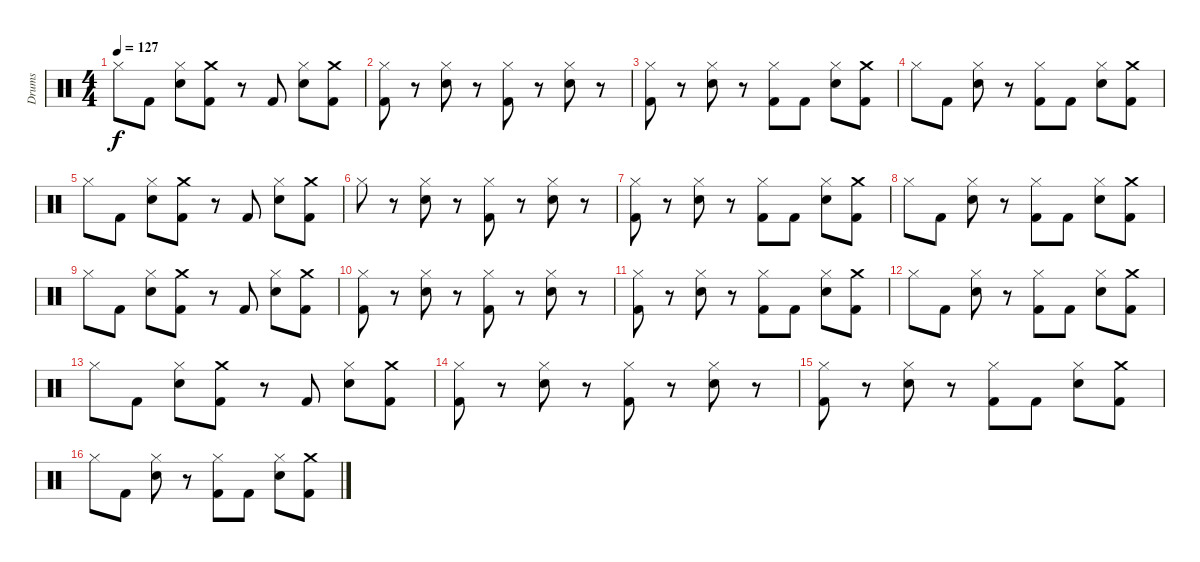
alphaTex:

\track ("Drums" "Drums") {instrument percussion}
\staff {score}
\articulation defaults
\ts (4 4)
\tempo 127
\clef neutral
\ks c "Hi-Hat (closed)".8{dy f} "Kick (hit) 2".8
("Hi-Hat (closed)" "Snare (hit) 2").8 ("Crash medium (hit)" "Kick (hit) 2").8 r.8 "Kick (hit) 2".8 ("Hi-Hat (closed)" "Snare (hit) 2").8 ("Crash medium (hit)" "Kick (hit) 2").8 |
("Hi-Hat (closed)" "Kick (hit) 2").8 r.8 ("Hi-Hat (closed)" "Snare (hit) 2").8 r.8 ("Hi-Hat (closed)" "Kick (hit) 2").8 r.8 ("Hi-Hat (closed)" "Snare (hit) 2").8 r.8 |
("Hi-Hat (closed)" "Kick (hit) 2").8 r.8 ("Hi-Hat (closed)" "Snare (hit) 2").8 r.8 ("Hi-Hat (closed)" "Kick (hit) 2").8 "Kick (hit) 2".8 ("Hi-Hat (closed)" "Snare (hit) 2").8 ("Crash medium (hit)" "Kick (hit) 2").8 |
"Hi-Hat (closed)".8 "Kick (hit) 2".8 ("Hi-Hat (closed)" "Snare (hit) 2").8 r.8 ("Hi-Hat (closed)" "Kick (hit) 2").8 "Kick (hit) 2".8 ("Hi-Hat (closed)" "Snare (hit) 2").8 ("Crash medium (hit)" "Kick (hit) 2").8 |
"Hi-Hat (closed)".8 "Kick (hit) 2".8 ("Hi-Hat (closed)" "Snare (hit) 2").8 ("Crash medium (hit)" "Kick (hit) 2").8 r.8 "Kick (hit) 2".8 ("Hi-Hat (closed)" "Snare (hit) 2").8 ("Crash medium (hit)" "Kick (hit) 2").8 |
"Hi-Hat (closed)".8 r.8 ("Hi-Hat (closed)" "Snare (hit) 2").8 r.8 ("Hi-Hat (closed)" "Kick (hit) 2").8 r.8 ("Hi-Hat (closed)" "Snare (hit) 2").8 r.8 |
("Hi-Hat (closed)" "Kick (hit) 2").8 r.8 ("Hi-Hat (closed)" "Snare (hit) 2").8 r.8 ("Hi-Hat (closed)" "Kick (hit) 2").8 "Kick (hit) 2".8 ("Hi-Hat (closed)" "Snare (hit) 2").8 ("Crash medium (hit)" "Kick (hit) 2").8 |
"Hi-Hat (closed)".8 "Kick (hit) 2".8 ("Hi-Hat (closed)" "Snare (hit) 2").8 r.8 ("Hi-Hat (closed)" "Kick (hit) 2").8 "Kick (hit) 2".8 ("Hi-Hat (closed)" "Snare (hit) 2").8 ("Crash medium (hit)" "Kick (hit) 2").8 |
"Hi-Hat (closed)".8 "Kick (hit) 2".8 ("Hi-Hat (closed)" "Snare (hit) 2").8 ("Crash medium (hit)" "Kick (hit) 2").8 r.8 "Kick (hit) 2".8 ("Hi-Hat (closed)" "Snare (hit) 2").8 ("Crash medium (hit)" "Kick (hit) 2").8 |
("Hi-Hat (closed)" "Kick (hit) 2").8 r.8 ("Hi-Hat (closed)" "Snare (hit) 2").8 r.8 ("Hi-Hat (closed)" "Kick (hit) 2").8 r.8 ("Hi-Hat (closed)" "Snare (hit) 2").8 r.8 |
("Hi-Hat (closed)" "Kick (hit) 2").8 r.8 ("Hi-Hat (closed)" "Snare (hit) 2").8 r.8 ("Hi-Hat (closed)" "Kick (hit) 2").8 "Kick (hit) 2".8 ("Hi-Hat (closed)" "Snare (hit) 2").8 ("Crash medium (hit)" "Kick (hit) 2").8 |
"Hi-Hat (closed)".8 "Kick (hit) 2".8 ("Hi-Hat (closed)" "Snare (hit) 2").8 r.8 ("Hi-Hat (closed)" "Kick (hit) 2").8 "Kick (hit) 2".8 ("Hi-Hat (closed)" "Snare (hit) 2").8 ("Crash medium (hit)" "Kick (hit) 2").8 |
"Hi-Hat (closed)".8 "Kick (hit) 2".8 ("Hi-Hat (closed)" "Snare (hit) 2").8 ("Crash medium (hit)" "Kick (hit) 2").8 r.8 "Kick (hit) 2".8 ("Hi-Hat (closed)" "Snare (hit) 2").8 ("Crash medium (hit)" "Kick (hit) 2").8 |
("Hi-Hat (closed)" "Kick (hit) 2").8 r.8 ("Hi-Hat (closed)" "Snare (hit) 2").8 r.8 ("Hi-Hat (closed)" "Kick (hit) 2").8 r.8 ("Hi-Hat (closed)" "Snare (hit) 2").8 r.8 |
("Hi-Hat (closed)" "Kick (hit) 2").8 r.8 ("Hi-Hat (closed)" "Snare (hit) 2").8 r.8 ("Hi-Hat (closed)" "Kick (hit) 2").8 "Kick (hit) 2".8 ("Hi-Hat (closed)" "Snare (hit) 2").8 ("Crash medium (hit)" "Kick (hit) 2").8 |
"Hi-Hat (closed)".8 "Kick (hit) 2".8 ("Hi-Hat (closed)" "Snare (hit) 2").8 r.8 ("Hi-Hat (closed)" "Kick (hit) 2").8 "Kick (hit) 2".8 ("Hi-Hat (closed)" "Snare (hit) 2").8 ("Crash medium (hit)" "Kick (hit) 2").8
